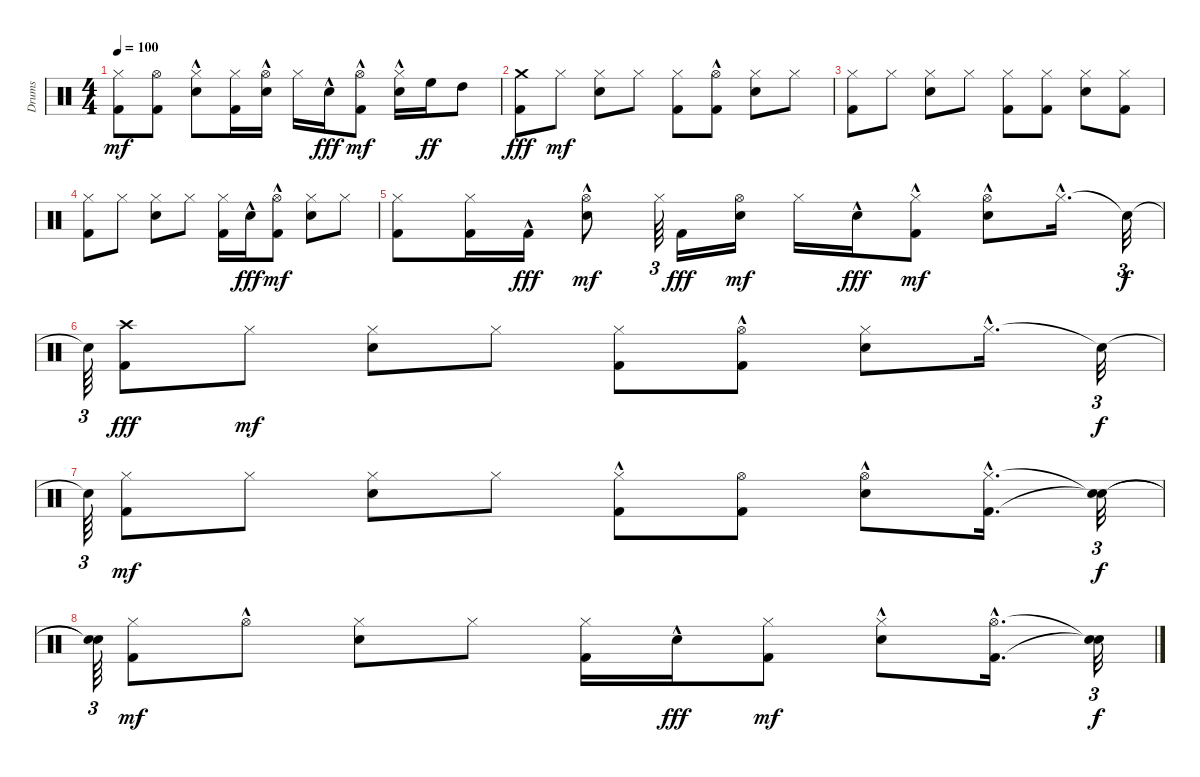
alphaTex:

\track ("Drums" "Drums") {instrument percussion}
\staff {score}
\articulation defaults
\ts (4 4)
\tempo 100
\clef neutral
\ks c
("Kick (hit) 2" "Hi-Hat (closed)").8{dy mf} ("Kick (hit) 2" "Hi-Hat (open)").8 ("Snare (hit) 2"{hac} "Hi-Hat (closed)").8 ("Kick (hit) 2" "Hi-Hat (closed)").16 ("Snare (hit) 2" "Hi-Hat (open)"{hac}).16 "Hi-Hat (closed)".16 "Snare (hit) 2"{hac}.16{dy fff} ("Kick (hit) 2"{hac} "Hi-Hat (open)").8{dy mf} ("Snare (hit) 2" "Hi-Hat (closed)"{hac}).16 "High Floor Tom (hit)".16{dy ff} "High Tom (hit)".8 |
("Crash medium (hit)" "Kick (hit) 2").8{dy fff} "Hi-Hat (closed)".8{dy mf} ("Snare (hit) 2" "Hi-Hat (closed)").8 "Hi-Hat (closed)".8 ("Kick (hit) 2" "Hi-Hat (closed)").8 ("Kick (hit) 2"{hac} "Hi-Hat (open)").8 ("Snare (hit) 2" "Hi-Hat (closed)").8 "Hi-Hat (closed)".8 |
("Kick (hit) 2" "Hi-Hat (closed)").8 "Hi-Hat (closed)".8 ("Snare (hit) 2" "Hi-Hat (closed)").8 "Hi-Hat (closed)".8 ("Kick (hit) 2" "Hi-Hat (closed)").8 ("Kick (hit) 2" "Hi-Hat (closed)").8 ("Snare (hit) 2" "Hi-Hat (closed)").8 ("Kick (hit) 2" "Hi-Hat (closed)").8 |
("Kick (hit) 2" "Hi-Hat (closed)").8 "Hi-Hat (closed)".8 ("Snare (hit) 2" "Hi-Hat (closed)").8 "Hi-Hat (closed)".8 ("Kick (hit) 2" "Hi-Hat (closed)").16 "Snare (hit) 2"{hac}.16{dy fff} ("Kick (hit) 2"{hac} "Hi-Hat (open)").8{dy mf} ("Snare (hit) 2" "Hi-Hat (closed)").8 "Hi-Hat (closed)".8 |
("Kick (hit) 2" "Hi-Hat (closed)").8 ("Kick (hit) 2" "Hi-Hat (closed)").16 "Kick (hit) 2"{hac}.16{dy fff} ("Snare (hit) 2"{hac} "Hi-Hat (open)"{hac}).8{dy mf} "Hi-Hat (closed)".64{tu (3 2)} "Kick (hit) 2".16{dy fff} ("Snare (hit) 2" "Hi-Hat (open)").16{dy mf} "Hi-Hat (closed)".16 "Snare (hit) 2"{hac}.16{dy fff} ("Kick (hit) 2"{hac} "Hi-Hat (closed)").8{dy mf} ("Snare (hit) 2" "Hi-Hat (open)"{hac}).8 "Hi-Hat (closed)"{hac}.16{d} "Snare (hit)"{t}.32{tu (3 2) dy f} |
"Snare (hit)"{t}.64{tu (3 2)} ("Crash high (hit)" "Kick (hit) 2").8{dy fff} "Hi-Hat (closed)".8{dy mf} ("Snare (hit) 2" "Hi-Hat (closed)").8 "Hi-Hat (closed)".8 ("Kick (hit) 2" "Hi-Hat (closed)").8 ("Kick (hit) 2"{hac} "Hi-Hat (open)").8 ("Snare (hit) 2" "Hi-Hat (closed)").8 "Hi-Hat (closed)"{hac}.16{d} "Snare (hit)"{t}.32{tu (3 2) dy f} |
"Snare (hit)"{t}.64{tu (3 2)} ("Kick (hit) 2" "Hi-Hat (closed)").8{dy mf} "Hi-Hat (closed)".8 ("Snare (hit) 2" "Hi-Hat (closed)").8 "Hi-Hat (closed)".8 ("Kick (hit) 2" "Hi-Hat (closed)"{hac}).8 ("Kick (hit) 2" "Hi-Hat (open)").8 ("Snare (hit) 2" "Hi-Hat (open)"{hac}).8 ("Kick (hit) 2"{hac} "Hi-Hat (closed)"{hac}).16{d} ("Snare (hit)"{t} "Snare (hit)"{t}).32{tu (3 2) dy f} |
("Snare (hit)"{t} "Snare (hit)"{t}).64{tu (3 2)} ("Kick (hit) 2" "Hi-Hat (closed)").8{dy mf} "Hi-Hat (open)"{hac}.8 ("Snare (hit) 2" "Hi-Hat (closed)").8 "Hi-Hat (closed)".8 ("Kick (hit) 2" "Hi-Hat (closed)").16 "Snare (hit) 2"{hac}.16{dy fff} ("Kick (hit) 2" "Hi-Hat (closed)").8{dy mf} ("Snare (hit) 2"{hac} "Hi-Hat (closed)").8 ("Kick (hit) 2"{hac} "Hi-Hat (open)"{hac}).16{d} ("Snare (hit)"{t} "Snare (hit)"{t}).32{tu (3 2) dy f}
